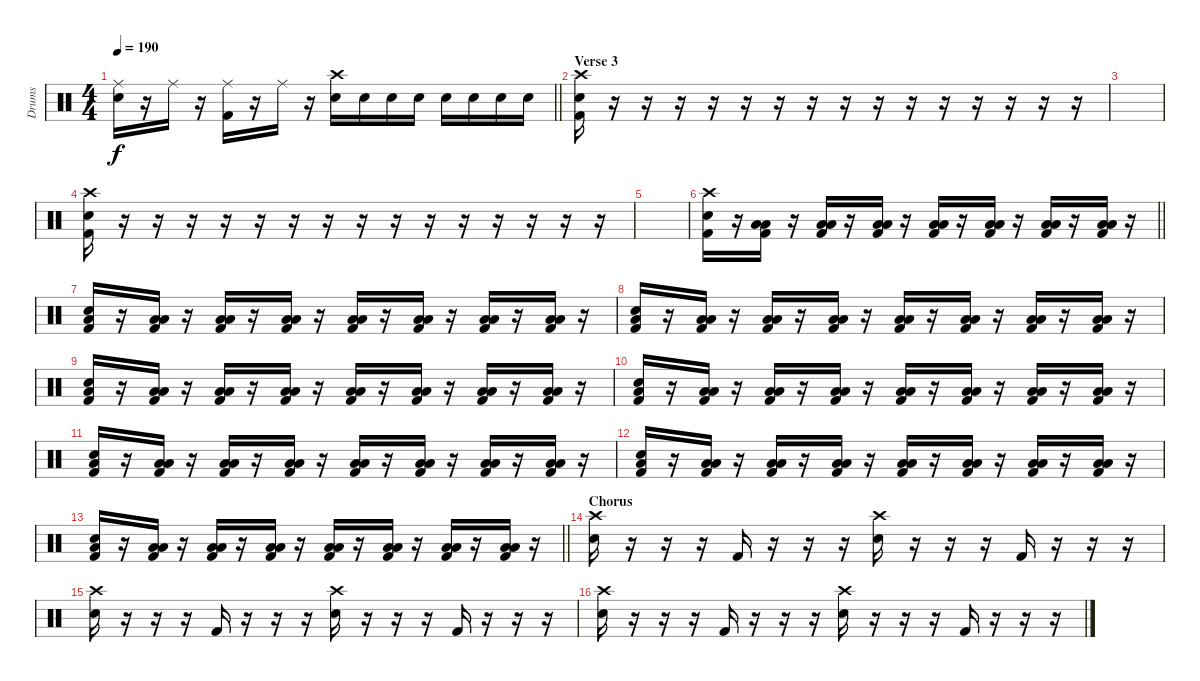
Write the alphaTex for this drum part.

\track ("Drums" "Drums") {instrument percussion}
\staff {score}
\articulation defaults
\ts (4 4)
\tempo 190
\clef neutral
\barLineRight lightlight
\ks c
("Ride (middle)" "Electric Snare (hit)").16{dy f} r.16 "Ride (middle)".16 r.16 ("Ride (middle)" "Kick (hit) 2").16 r.16 "Ride (middle)".16 r.16 ("Crash high (hit)" "Electric Snare (hit)").16 "Electric Snare (hit)".16 "Electric Snare (hit)".16 "Electric Snare (hit)".16 "Electric Snare (hit)".16 "Electric Snare (hit)".16 "Electric Snare (hit)".16 "Electric Snare (hit)".16 |
\section ("" "Verse 3")
("Crash high (hit)" "Electric Snare (hit)" "Kick (hit) 2").16 r.16 r.16 r.16 r.16 r.16 r.16 r.16 r.16 r.16 r.16 r.16 r.16 r.16 r.16 r.16 |
|
("Crash high (hit)" "Electric Snare (hit)" "Kick (hit) 2").16 r.16 r.16 r.16 r.16 r.16 r.16 r.16 r.16 r.16 r.16 r.16 r.16 r.16 r.16 r.16 |
|
\barLineRight lightlight
("Crash high (hit)" "Electric Snare (hit)" "Kick (hit) 2").16 r.16 ("Low Tom (hit)" "Low Floor Tom (hit)" "Kick (hit) 2").16 r.16 ("Low Tom (hit)" "Low Floor Tom (hit)" "Kick (hit) 2").16 r.16 ("Low Tom (hit)" "Low Floor Tom (hit)" "Kick (hit) 2").16 r.16 ("Low Tom (hit)" "Low Floor Tom (hit)" "Kick (hit) 2").16 r.16 ("Low Tom (hit)" "Low Floor Tom (hit)" "Kick (hit) 2").16 r.16 ("Low Tom (hit)" "Low Floor Tom (hit)" "Kick (hit) 2").16 r.16 ("Low Tom (hit)" "Low Floor Tom (hit)" "Kick (hit) 2").16 r.16 |
("Low Tom (hit)" "Electric Snare (hit)" "Kick (hit) 2").16 r.16 ("Low Tom (hit)" "Low Floor Tom (hit)" "Kick (hit) 2").16 r.16 ("Low Tom (hit)" "Low Floor Tom (hit)" "Kick (hit) 2").16 r.16 ("Low Tom (hit)" "Low Floor Tom (hit)" "Kick (hit) 2").16 r.16 ("Low Tom (hit)" "Low Floor Tom (hit)" "Kick (hit) 2").16 r.16 ("Low Tom (hit)" "Low Floor Tom (hit)" "Kick (hit) 2").16 r.16 ("Low Tom (hit)" "Low Floor Tom (hit)" "Kick (hit) 2").16 r.16 ("Low Tom (hit)" "Low Floor Tom (hit)" "Kick (hit) 2").16 r.16 |
("Low Tom (hit)" "Electric Snare (hit)" "Kick (hit) 2").16 r.16 ("Low Tom (hit)" "Low Floor Tom (hit)" "Kick (hit) 2").16 r.16 ("Low Tom (hit)" "Low Floor Tom (hit)" "Kick (hit) 2").16 r.16 ("Low Tom (hit)" "Low Floor Tom (hit)" "Kick (hit) 2").16 r.16 ("Low Tom (hit)" "Low Floor Tom (hit)" "Kick (hit) 2").16 r.16 ("Low Tom (hit)" "Low Floor Tom (hit)" "Kick (hit) 2").16 r.16 ("Low Tom (hit)" "Low Floor Tom (hit)" "Kick (hit) 2").16 r.16 ("Low Tom (hit)" "Low Floor Tom (hit)" "Kick (hit) 2").16 r.16 |
("Low Tom (hit)" "Electric Snare (hit)" "Kick (hit) 2").16 r.16 ("Low Tom (hit)" "Low Floor Tom (hit)" "Kick (hit) 2").16 r.16 ("Low Tom (hit)" "Low Floor Tom (hit)" "Kick (hit) 2").16 r.16 ("Low Tom (hit)" "Low Floor Tom (hit)" "Kick (hit) 2").16 r.16 ("Low Tom (hit)" "Low Floor Tom (hit)" "Kick (hit) 2").16 r.16 ("Low Tom (hit)" "Low Floor Tom (hit)" "Kick (hit) 2").16 r.16 ("Low Tom (hit)" "Low Floor Tom (hit)" "Kick (hit) 2").16 r.16 ("Low Tom (hit)" "Low Floor Tom (hit)" "Kick (hit) 2").16 r.16 |
("Low Tom (hit)" "Electric Snare (hit)" "Kick (hit) 2").16 r.16 ("Low Tom (hit)" "Low Floor Tom (hit)" "Kick (hit) 2").16 r.16 ("Low Tom (hit)" "Low Floor Tom (hit)" "Kick (hit) 2").16 r.16 ("Low Tom (hit)" "Low Floor Tom (hit)" "Kick (hit) 2").16 r.16 ("Low Tom (hit)" "Low Floor Tom (hit)" "Kick (hit) 2").16 r.16 ("Low Tom (hit)" "Low Floor Tom (hit)" "Kick (hit) 2").16 r.16 ("Low Tom (hit)" "Low Floor Tom (hit)" "Kick (hit) 2").16 r.16 ("Low Tom (hit)" "Low Floor Tom (hit)" "Kick (hit) 2").16 r.16 |
("Low Tom (hit)" "Electric Snare (hit)" "Kick (hit) 2").16 r.16 ("Low Tom (hit)" "Low Floor Tom (hit)" "Kick (hit) 2").16 r.16 ("Low Tom (hit)" "Low Floor Tom (hit)" "Kick (hit) 2").16 r.16 ("Low Tom (hit)" "Low Floor Tom (hit)" "Kick (hit) 2").16 r.16 ("Low Tom (hit)" "Low Floor Tom (hit)" "Kick (hit) 2").16 r.16 ("Low Tom (hit)" "Low Floor Tom (hit)" "Kick (hit) 2").16 r.16 ("Low Tom (hit)" "Low Floor Tom (hit)" "Kick (hit) 2").16 r.16 ("Low Tom (hit)" "Low Floor Tom (hit)" "Kick (hit) 2").16 r.16 |
("Low Tom (hit)" "Electric Snare (hit)" "Kick (hit) 2").16 r.16 ("Low Tom (hit)" "Low Floor Tom (hit)" "Kick (hit) 2").16 r.16 ("Low Tom (hit)" "Low Floor Tom (hit)" "Kick (hit) 2").16 r.16 ("Low Tom (hit)" "Low Floor Tom (hit)" "Kick (hit) 2").16 r.16 ("Low Tom (hit)" "Low Floor Tom (hit)" "Kick (hit) 2").16 r.16 ("Low Tom (hit)" "Low Floor Tom (hit)" "Kick (hit) 2").16 r.16 ("Low Tom (hit)" "Low Floor Tom (hit)" "Kick (hit) 2").16 r.16 ("Low Tom (hit)" "Low Floor Tom (hit)" "Kick (hit) 2").16 r.16 |
\barLineRight lightlight
("Low Tom (hit)" "Electric Snare (hit)" "Kick (hit) 2").16 r.16 ("Low Tom (hit)" "Low Floor Tom (hit)" "Kick (hit) 2").16 r.16 ("Low Tom (hit)" "Low Floor Tom (hit)" "Kick (hit) 2").16 r.16 ("Low Tom (hit)" "Low Floor Tom (hit)" "Kick (hit) 2").16 r.16 ("Low Tom (hit)" "Low Floor Tom (hit)" "Kick (hit) 2").16 r.16 ("Low Tom (hit)" "Low Floor Tom (hit)" "Kick (hit) 2").16 r.16 ("Low Tom (hit)" "Low Floor Tom (hit)" "Kick (hit) 2").16 r.16 ("Low Tom (hit)" "Low Floor Tom (hit)" "Kick (hit) 2").16 r.16 |
\section ("" "Chorus")
("Crash high (hit)" "Electric Snare (hit)").16 r.16 r.16 r.16 "Kick (hit) 2".16 r.16 r.16 r.16 ("Crash high (hit)" "Electric Snare (hit)").16 r.16 r.16 r.16 "Kick (hit) 2".16 r.16 r.16 r.16 |
("Crash high (hit)" "Electric Snare (hit)").16 r.16 r.16 r.16 "Kick (hit) 2".16 r.16 r.16 r.16 ("Crash high (hit)" "Electric Snare (hit)").16 r.16 r.16 r.16 "Kick (hit) 2".16 r.16 r.16 r.16 |
("Crash high (hit)" "Electric Snare (hit)").16 r.16 r.16 r.16 "Kick (hit) 2".16 r.16 r.16 r.16 ("Crash high (hit)" "Electric Snare (hit)").16 r.16 r.16 r.16 "Kick (hit) 2".16 r.16 r.16 r.16
